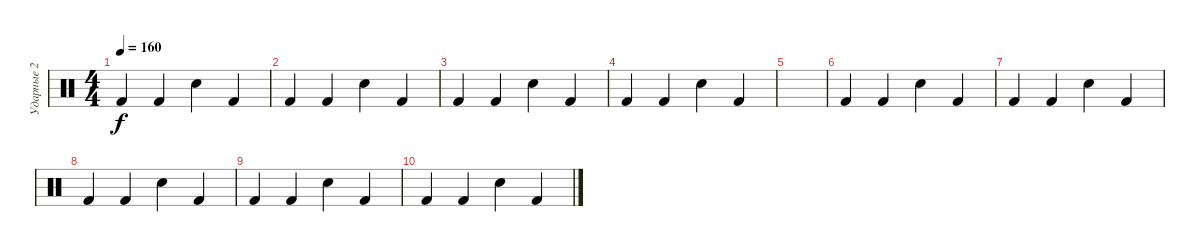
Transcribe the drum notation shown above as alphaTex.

\track ("Ударные 2" "Ударные 2") {instrument percussion}
\staff {score}
\articulation defaults
\ts (4 4)
\tempo 160
\clef neutral
\ks c "Kick (hit) 2".4{dy f} "Kick (hit) 2".4 "Hand Clap (hit)".4 "Kick (hit) 2".4
|
"Kick (hit) 2".4 "Kick (hit) 2".4 "Hand Clap (hit)".4 "Kick (hit) 2".4 |
"Kick (hit) 2".4 "Kick (hit) 2".4 "Hand Clap (hit)".4 "Kick (hit) 2".4 |
"Kick (hit) 2".4 "Kick (hit) 2".4 "Hand Clap (hit)".4 "Kick (hit) 2".4 |
|
"Kick (hit) 2".4 "Kick (hit) 2".4 "Hand Clap (hit)".4 "Kick (hit) 2".4 |
"Kick (hit) 2".4 "Kick (hit) 2".4 "Hand Clap (hit)".4 "Kick (hit) 2".4 |
"Kick (hit) 2".4 "Kick (hit) 2".4 "Hand Clap (hit)".4 "Kick (hit) 2".4 |
"Kick (hit) 2".4 "Kick (hit) 2".4 "Hand Clap (hit)".4 "Kick (hit) 2".4 |
"Kick (hit) 2".4 "Kick (hit) 2".4 "Hand Clap (hit)".4 "Kick (hit) 2".4
